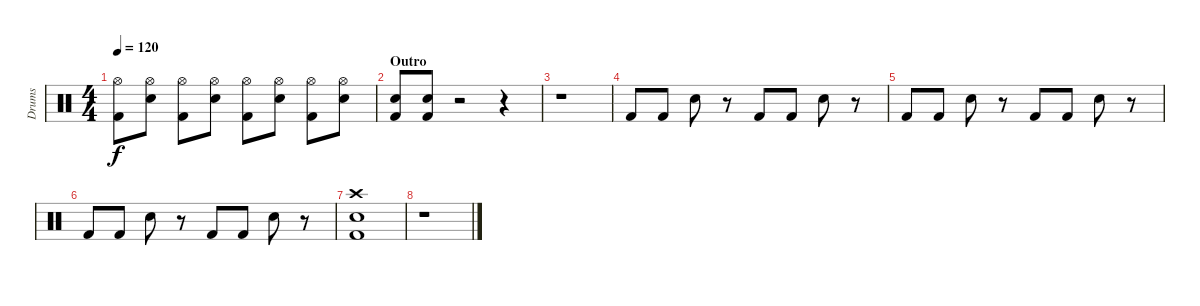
\track ("Drums" "Drums") {instrument percussion}
\staff {score}
\articulation defaults
\ts (4 4)
\tempo 120
\clef neutral
\ks c
("Hi-Hat (open)" "Kick (hit) 2").8{dy f} ("Hi-Hat (open)" "Snare (hit) 2").8 ("Hi-Hat (open)" "Kick (hit) 2").8 ("Hi-Hat (open)" "Snare (hit) 2").8 ("Hi-Hat (open)" "Kick (hit) 2").8 ("Hi-Hat (open)" "Snare (hit) 2").8 ("Hi-Hat (open)" "Kick (hit) 2").8 ("Hi-Hat (open)" "Snare (hit) 2").8 |
\section ("" "Outro")
("Snare (hit) 2" "Kick (hit) 2").8 ("Snare (hit) 2" "Kick (hit) 2").8 r.2 r.4 |
r.1 |
"Kick (hit) 2".8 "Kick (hit) 2".8 "Snare (hit) 2".8 r.8 "Kick (hit) 2".8 "Kick (hit) 2".8 "Snare (hit) 2".8 r.8 |
"Kick (hit) 2".8 "Kick (hit) 2".8 "Snare (hit) 2".8 r.8 "Kick (hit) 2".8 "Kick (hit) 2".8 "Snare (hit) 2".8 r.8 |
"Kick (hit) 2".8 "Kick (hit) 2".8 "Snare (hit) 2".8 r.8 "Kick (hit) 2".8 "Kick (hit) 2".8 "Snare (hit) 2".8 r.8 |
("Crash high (hit)" "Snare (hit) 2" "Kick (hit) 2").1 |
r.1
